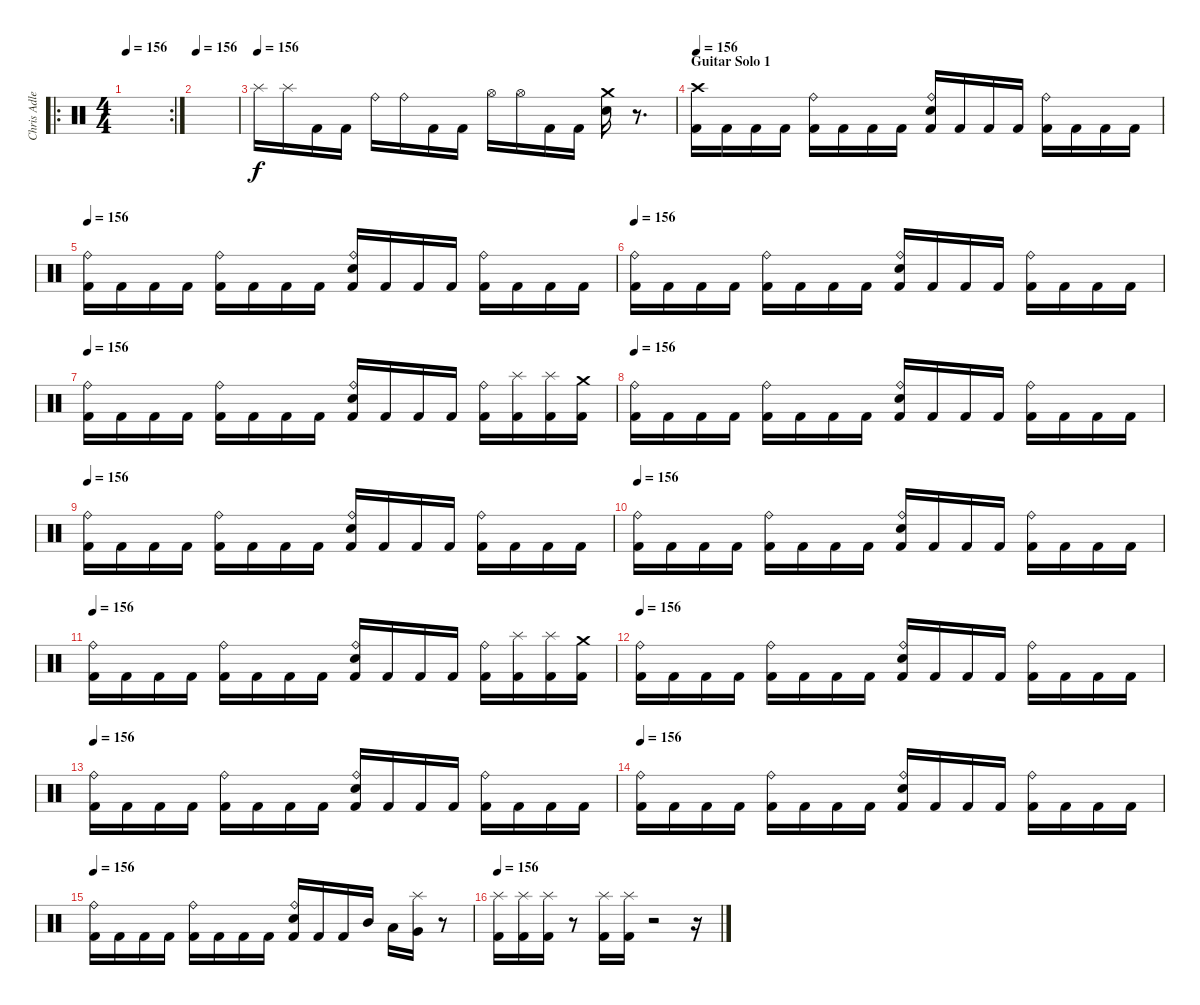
\track ("Chris Adler" "Chris Adle") {instrument percussion}
\staff {score}
\articulation defaults
\ro
\rc 2
\ts (4 4)
\tempo 156
\clef neutral
\ks c
|
\tempo 156
|
\tempo (156)
"Splash (hit)".16 "Splash (hit)".16 "Kick (hit) 2".16 "Kick (hit) 2".16 "Ride (bell)".16 "Ride (bell)".16 "Kick (hit) 2".16 "Kick (hit) 2".16 "Hi-Hat (open)".16 "Hi-Hat (open)".16 "Kick (hit) 2".16 "Kick (hit) 2".16 ("Crash medium (hit)" "Snare (hit) 2").16 r.8{d} |
\section ("" "Guitar Solo 1")
\tempo 156
("Crash high (hit)" "Kick (hit) 2").16 "Kick (hit) 2".16 "Kick (hit) 2".16 "Kick (hit) 2".16 ("Ride (bell)" "Kick (hit) 2").16 "Kick (hit) 2".16 "Kick (hit) 2".16 "Kick (hit) 2".16 ("Ride (bell)" "Snare (hit) 2" "Kick (hit) 2").16 "Kick (hit) 2".16 "Kick (hit) 2".16 "Kick (hit) 2".16 ("Ride (bell)" "Kick (hit) 2").16 "Kick (hit) 2".16 "Kick (hit) 2".16 "Kick (hit) 2".16 |
\tempo 156
("Ride (bell)" "Kick (hit) 2").16 "Kick (hit) 2".16 "Kick (hit) 2".16 "Kick (hit) 2".16 ("Ride (bell)" "Kick (hit) 2").16 "Kick (hit) 2".16 "Kick (hit) 2".16 "Kick (hit) 2".16 ("Ride (bell)" "Snare (hit) 2" "Kick (hit) 2").16 "Kick (hit) 2".16 "Kick (hit) 2".16 "Kick (hit) 2".16 ("Ride (bell)" "Kick (hit) 2").16 "Kick (hit) 2".16 "Kick (hit) 2".16 "Kick (hit) 2".16 |
\tempo 156
("Ride (bell)" "Kick (hit) 2").16 "Kick (hit) 2".16 "Kick (hit) 2".16 "Kick (hit) 2".16 ("Ride (bell)" "Kick (hit) 2").16 "Kick (hit) 2".16 "Kick (hit) 2".16 "Kick (hit) 2".16 ("Ride (bell)" "Snare (hit) 2" "Kick (hit) 2").16 "Kick (hit) 2".16 "Kick (hit) 2".16 "Kick (hit) 2".16 ("Ride (bell)" "Kick (hit) 2").16 "Kick (hit) 2".16 "Kick (hit) 2".16 "Kick (hit) 2".16 |
\tempo 156
("Ride (bell)" "Kick (hit) 2").16 "Kick (hit) 2".16 "Kick (hit) 2".16 "Kick (hit) 2".16 ("Ride (bell)" "Kick (hit) 2").16 "Kick (hit) 2".16 "Kick (hit) 2".16 "Kick (hit) 2".16 ("Ride (bell)" "Snare (hit) 2" "Kick (hit) 2").16 "Kick (hit) 2".16 "Kick (hit) 2".16 "Kick (hit) 2".16 ("Ride (bell)" "Kick (hit) 2").16 ("Splash (hit)" "Kick (hit) 2").16 ("Splash (hit)" "Kick (hit) 2").16 ("Crash medium (hit)" "Kick (hit) 2").16 |
\tempo 156
("Ride (bell)" "Kick (hit) 2").16 "Kick (hit) 2".16 "Kick (hit) 2".16 "Kick (hit) 2".16 ("Ride (bell)" "Kick (hit) 2").16 "Kick (hit) 2".16 "Kick (hit) 2".16 "Kick (hit) 2".16 ("Ride (bell)" "Snare (hit) 2" "Kick (hit) 2").16 "Kick (hit) 2".16 "Kick (hit) 2".16 "Kick (hit) 2".16 ("Ride (bell)" "Kick (hit) 2").16 "Kick (hit) 2".16 "Kick (hit) 2".16 "Kick (hit) 2".16 |
\tempo 156
("Ride (bell)" "Kick (hit) 2").16 "Kick (hit) 2".16 "Kick (hit) 2".16 "Kick (hit) 2".16 ("Ride (bell)" "Kick (hit) 2").16 "Kick (hit) 2".16 "Kick (hit) 2".16 "Kick (hit) 2".16 ("Ride (bell)" "Snare (hit) 2" "Kick (hit) 2").16 "Kick (hit) 2".16 "Kick (hit) 2".16 "Kick (hit) 2".16 ("Ride (bell)" "Kick (hit) 2").16 "Kick (hit) 2".16 "Kick (hit) 2".16 "Kick (hit) 2".16 |
\tempo 156
("Ride (bell)" "Kick (hit) 2").16 "Kick (hit) 2".16 "Kick (hit) 2".16 "Kick (hit) 2".16 ("Ride (bell)" "Kick (hit) 2").16 "Kick (hit) 2".16 "Kick (hit) 2".16 "Kick (hit) 2".16 ("Ride (bell)" "Snare (hit) 2" "Kick (hit) 2").16 "Kick (hit) 2".16 "Kick (hit) 2".16 "Kick (hit) 2".16 ("Ride (bell)" "Kick (hit) 2").16 "Kick (hit) 2".16 "Kick (hit) 2".16 "Kick (hit) 2".16 |
\tempo 156
("Ride (bell)" "Kick (hit) 2").16 "Kick (hit) 2".16 "Kick (hit) 2".16 "Kick (hit) 2".16 ("Ride (bell)" "Kick (hit) 2").16 "Kick (hit) 2".16 "Kick (hit) 2".16 "Kick (hit) 2".16 ("Ride (bell)" "Snare (hit) 2" "Kick (hit) 2").16 "Kick (hit) 2".16 "Kick (hit) 2".16 "Kick (hit) 2".16 ("Ride (bell)" "Kick (hit) 2").16 ("Splash (hit)" "Kick (hit) 2").16 ("Splash (hit)" "Kick (hit) 2").16 ("Crash medium (hit)" "Kick (hit) 2").16 |
\tempo 156
("Ride (bell)" "Kick (hit) 2").16 "Kick (hit) 2".16 "Kick (hit) 2".16 "Kick (hit) 2".16 ("Ride (bell)" "Kick (hit) 2").16 "Kick (hit) 2".16 "Kick (hit) 2".16 "Kick (hit) 2".16 ("Ride (bell)" "Snare (hit) 2" "Kick (hit) 2").16 "Kick (hit) 2".16 "Kick (hit) 2".16 "Kick (hit) 2".16 ("Ride (bell)" "Kick (hit) 2").16 "Kick (hit) 2".16 "Kick (hit) 2".16 "Kick (hit) 2".16 |
\tempo 156
("Ride (bell)" "Kick (hit) 2").16 "Kick (hit) 2".16 "Kick (hit) 2".16 "Kick (hit) 2".16 ("Ride (bell)" "Kick (hit) 2").16 "Kick (hit) 2".16 "Kick (hit) 2".16 "Kick (hit) 2".16 ("Ride (bell)" "Snare (hit) 2" "Kick (hit) 2").16 "Kick (hit) 2".16 "Kick (hit) 2".16 "Kick (hit) 2".16 ("Ride (bell)" "Kick (hit) 2").16 "Kick (hit) 2".16 "Kick (hit) 2".16 "Kick (hit) 2".16 |
\tempo 156
("Ride (bell)" "Kick (hit) 2").16 "Kick (hit) 2".16 "Kick (hit) 2".16 "Kick (hit) 2".16 ("Ride (bell)" "Kick (hit) 2").16 "Kick (hit) 2".16 "Kick (hit) 2".16 "Kick (hit) 2".16 ("Ride (bell)" "Snare (hit) 2" "Kick (hit) 2").16 "Kick (hit) 2".16 "Kick (hit) 2".16 "Kick (hit) 2".16 ("Ride (bell)" "Kick (hit) 2").16 "Kick (hit) 2".16 "Kick (hit) 2".16 "Kick (hit) 2".16 |
\tempo 156
("Ride (bell)" "Kick (hit) 2").16 "Kick (hit) 2".16 "Kick (hit) 2".16 "Kick (hit) 2".16 ("Ride (bell)" "Kick (hit) 2").16 "Kick (hit) 2".16 "Kick (hit) 2".16 "Kick (hit) 2".16 ("Ride (bell)" "Snare (hit) 2" "Kick (hit) 2").16 "Kick (hit) 2".16 "Kick (hit) 2".16 "Mid Tom (hit)".16 "Low Tom (hit)".16 ("Splash (hit)" "Very Low Tom (hit)").16 r.8 |
\tempo 156
("Splash (hit)" "Kick (hit) 2").16 ("Splash (hit)" "Kick (hit) 2").16 ("Splash (hit)" "Kick (hit) 2").16 r.8 ("Splash (hit)" "Kick (hit) 2").16 ("Splash (hit)" "Kick (hit) 2").16 r.2 r.16
